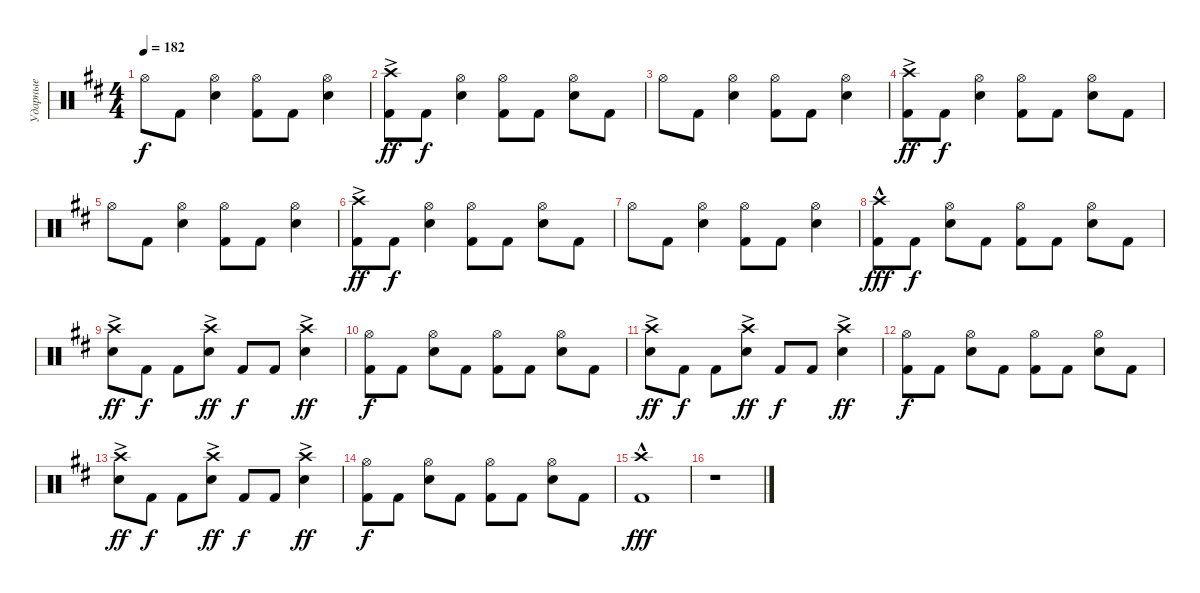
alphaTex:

\track ("Ударные" "Ударные") {instrument percussion}
\staff {score}
\articulation defaults
\ts (4 4)
\tempo 182
\clef neutral
\ks d "Hi-Hat (open)".8{dy f} "Kick (hit) 2".8
("Snare (hit) 2" "Hi-Hat (open)").4 ("Kick (hit) 2" "Hi-Hat (open)").8 "Kick (hit) 2".8 ("Snare (hit) 2" "Hi-Hat (open)").4 |
("Kick (hit) 2" "Crash high (hit)"{ac}).8{dy ff} "Kick (hit) 2".8{dy f} ("Snare (hit) 2" "Hi-Hat (open)").4 ("Kick (hit) 2" "Hi-Hat (open)").8 "Kick (hit) 2".8 ("Snare (hit) 2" "Hi-Hat (open)").8 "Kick (hit) 2".8 |
"Hi-Hat (open)".8 "Kick (hit) 2".8 ("Snare (hit) 2" "Hi-Hat (open)").4 ("Kick (hit) 2" "Hi-Hat (open)").8 "Kick (hit) 2".8 ("Snare (hit) 2" "Hi-Hat (open)").4 |
("Kick (hit) 2" "Crash high (hit)"{ac}).8{dy ff} "Kick (hit) 2".8{dy f} ("Snare (hit) 2" "Hi-Hat (open)").4 ("Kick (hit) 2" "Hi-Hat (open)").8 "Kick (hit) 2".8 ("Snare (hit) 2" "Hi-Hat (open)").8 "Kick (hit) 2".8 |
"Hi-Hat (open)".8 "Kick (hit) 2".8 ("Snare (hit) 2" "Hi-Hat (open)").4 ("Kick (hit) 2" "Hi-Hat (open)").8 "Kick (hit) 2".8 ("Snare (hit) 2" "Hi-Hat (open)").4 |
("Kick (hit) 2" "Crash high (hit)"{ac}).8{dy ff} "Kick (hit) 2".8{dy f} ("Snare (hit) 2" "Hi-Hat (open)").4 ("Kick (hit) 2" "Hi-Hat (open)").8 "Kick (hit) 2".8 ("Snare (hit) 2" "Hi-Hat (open)").8 "Kick (hit) 2".8 |
"Hi-Hat (open)".8 "Kick (hit) 2".8 ("Snare (hit) 2" "Hi-Hat (open)").4 ("Kick (hit) 2" "Hi-Hat (open)").8 "Kick (hit) 2".8 ("Snare (hit) 2" "Hi-Hat (open)").4 |
("Kick (hit) 2" "Crash high (hit)"{hac}).8{dy fff} "Kick (hit) 2".8{dy f} ("Snare (hit) 2" "Hi-Hat (open)").8 "Kick (hit) 2".8 ("Kick (hit) 2" "Hi-Hat (open)").8 "Kick (hit) 2".8 ("Snare (hit) 2" "Hi-Hat (open)").8 "Kick (hit) 2".8 |
("Snare (hit) 2" "Crash high (hit)"{ac}).8{dy ff} "Kick (hit) 2".8{dy f} "Kick (hit) 2".8 ("Snare (hit) 2" "Crash high (hit)"{ac}).8{dy ff} "Kick (hit) 2".8{dy f} "Kick (hit) 2".8 ("Snare (hit) 2" "Crash high (hit)"{ac}).4{dy ff} |
("Kick (hit) 2" "Hi-Hat (open)").8{dy f} "Kick (hit) 2".8 ("Snare (hit) 2" "Hi-Hat (open)").8 "Kick (hit) 2".8 ("Kick (hit) 2" "Hi-Hat (open)").8 "Kick (hit) 2".8 ("Snare (hit) 2" "Hi-Hat (open)").8 "Kick (hit) 2".8 |
("Snare (hit) 2" "Crash high (hit)"{ac}).8{dy ff} "Kick (hit) 2".8{dy f} "Kick (hit) 2".8 ("Snare (hit) 2" "Crash high (hit)"{ac}).8{dy ff} "Kick (hit) 2".8{dy f} "Kick (hit) 2".8 ("Snare (hit) 2" "Crash high (hit)"{ac}).4{dy ff} |
("Kick (hit) 2" "Hi-Hat (open)").8{dy f} "Kick (hit) 2".8 ("Snare (hit) 2" "Hi-Hat (open)").8 "Kick (hit) 2".8 ("Kick (hit) 2" "Hi-Hat (open)").8 "Kick (hit) 2".8 ("Snare (hit) 2" "Hi-Hat (open)").8 "Kick (hit) 2".8 |
("Snare (hit) 2" "Crash high (hit)"{ac}).8{dy ff} "Kick (hit) 2".8{dy f} "Kick (hit) 2".8 ("Snare (hit) 2" "Crash high (hit)"{ac}).8{dy ff} "Kick (hit) 2".8{dy f} "Kick (hit) 2".8 ("Snare (hit) 2" "Crash high (hit)"{ac}).4{dy ff} |
("Kick (hit) 2" "Hi-Hat (open)").8{dy f} "Kick (hit) 2".8 ("Snare (hit) 2" "Hi-Hat (open)").8 "Kick (hit) 2".8 ("Kick (hit) 2" "Hi-Hat (open)").8 "Kick (hit) 2".8 ("Snare (hit) 2" "Hi-Hat (open)").8 "Kick (hit) 2".8 |
("Kick (hit) 2" "Crash high (hit)"{hac}).1{dy fff} |
r.1
